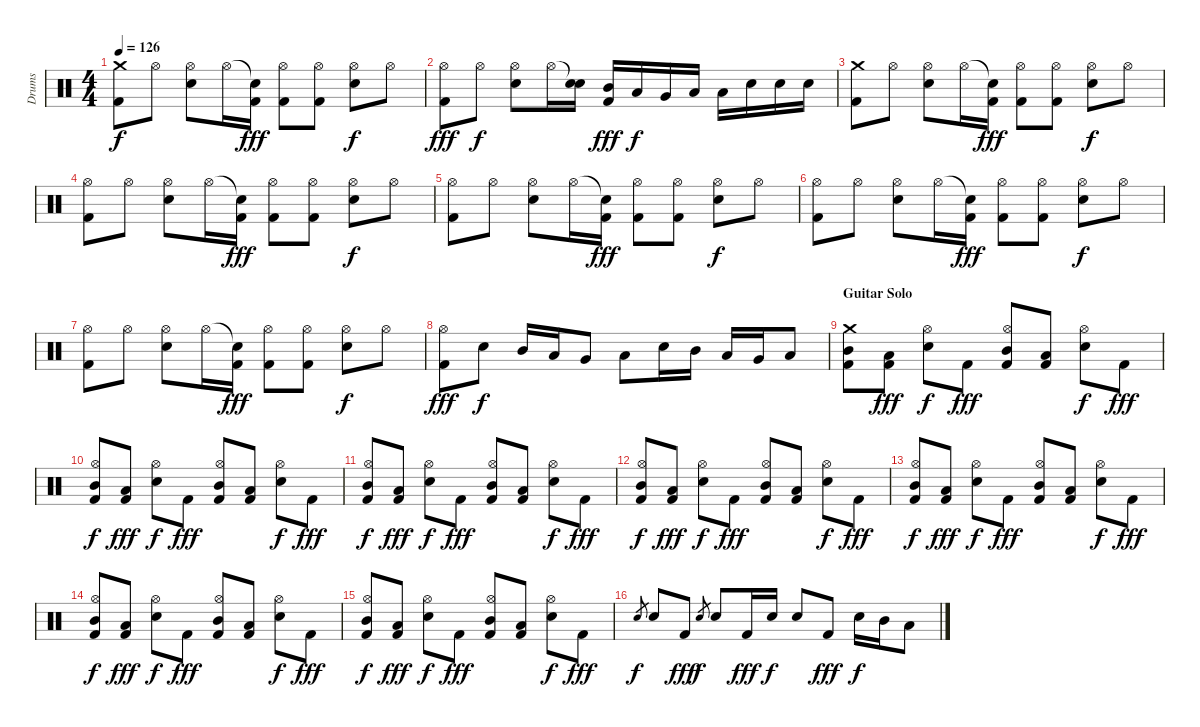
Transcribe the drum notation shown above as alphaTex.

\track ("Drums" "Drums") {instrument percussion}
\staff {score}
\articulation defaults
\ts (4 4)
\tempo 126
\clef neutral
\ks c
("Crash medium (hit)" "Kick (hit) 2").8{dy f} "Hi-Hat (open)".8 ("Hi-Hat (open)" "Snare (hit) 2").8 "Hi-Hat (open)".16 ("Snare (hit)"{t} "Kick (hit) 2").16{dy fff} ("Hi-Hat (open)" "Kick (hit) 2").8 ("Hi-Hat (open)" "Kick (hit) 2").8 ("Hi-Hat (open)" "Snare (hit) 2").8{dy f} "Hi-Hat (open)".8 |
("Hi-Hat (open)" "Kick (hit) 2").8{dy fff} "Hi-Hat (open)".8{dy f} ("Hi-Hat (open)" "Snare (hit) 2").8 "Hi-Hat (open)".16 ("Snare (hit)"{t} "Snare (hit) 2").16 ("Mid Tom (hit)" "Kick (hit) 2").16{dy fff} "Low Tom (hit)".16{dy f} "Very Low Tom (hit)".16 "Low Floor Tom (hit)".16 "Low Floor Tom (hit)".16 "Snare (hit) 2".16 "Snare (hit) 2".16 "Snare (hit) 2".16 |
("Crash medium (hit)" "Kick (hit) 2").8 "Hi-Hat (open)".8 ("Hi-Hat (open)" "Snare (hit) 2").8 "Hi-Hat (open)".16 ("Snare (hit)"{t} "Kick (hit) 2").16{dy fff} ("Hi-Hat (open)" "Kick (hit) 2").8 ("Hi-Hat (open)" "Kick (hit) 2").8 ("Hi-Hat (open)" "Snare (hit) 2").8{dy f} "Hi-Hat (open)".8 |
("Hi-Hat (open)" "Kick (hit) 2").8 "Hi-Hat (open)".8 ("Hi-Hat (open)" "Snare (hit) 2").8 "Hi-Hat (open)".16 ("Snare (hit)"{t} "Kick (hit) 2").16{dy fff} ("Hi-Hat (open)" "Kick (hit) 2").8 ("Hi-Hat (open)" "Kick (hit) 2").8 ("Hi-Hat (open)" "Snare (hit) 2").8{dy f} "Hi-Hat (open)".8 |
("Hi-Hat (open)" "Kick (hit) 2").8 "Hi-Hat (open)".8 ("Hi-Hat (open)" "Snare (hit) 2").8 "Hi-Hat (open)".16 ("Snare (hit)"{t} "Kick (hit) 2").16{dy fff} ("Hi-Hat (open)" "Kick (hit) 2").8 ("Hi-Hat (open)" "Kick (hit) 2").8 ("Hi-Hat (open)" "Snare (hit) 2").8{dy f} "Hi-Hat (open)".8 |
("Hi-Hat (open)" "Kick (hit) 2").8 "Hi-Hat (open)".8 ("Hi-Hat (open)" "Snare (hit) 2").8 "Hi-Hat (open)".16 ("Snare (hit)"{t} "Kick (hit) 2").16{dy fff} ("Hi-Hat (open)" "Kick (hit) 2").8 ("Hi-Hat (open)" "Kick (hit) 2").8 ("Hi-Hat (open)" "Snare (hit) 2").8{dy f} "Hi-Hat (open)".8 |
("Hi-Hat (open)" "Kick (hit) 2").8 "Hi-Hat (open)".8 ("Hi-Hat (open)" "Snare (hit) 2").8 "Hi-Hat (open)".16 ("Snare (hit)"{t} "Kick (hit) 2").16{dy fff} ("Hi-Hat (open)" "Kick (hit) 2").8 ("Hi-Hat (open)" "Kick (hit) 2").8 ("Hi-Hat (open)" "Snare (hit) 2").8{dy f} "Hi-Hat (open)".8 |
("Hi-Hat (open)" "Kick (hit) 2").8{dy fff} "Snare (hit) 2".8{dy f} "Mid Tom (hit)".16 "Low Tom (hit)".16 "Very Low Tom (hit)".8 "Low Floor Tom (hit)".8 "Snare (hit) 2".16 "Mid Tom (hit)".16 "Low Tom (hit)".16 "Very Low Tom (hit)".16 "Low Floor Tom (hit)".8 |
\section ("" "Guitar Solo")
("Crash medium (hit)" "Mid Tom (hit)" "Kick (hit) 2").8 ("Low Tom (hit)" "Kick (hit) 2").8{dy fff} ("Hi-Hat (open)" "Snare (hit) 2").8{dy f} "Kick (hit) 2".8{dy fff} ("Hi-Hat (open)" "Mid Tom (hit)" "Kick (hit) 2").8 ("Low Tom (hit)" "Kick (hit) 2").8 ("Hi-Hat (open)" "Snare (hit) 2").8{dy f} "Kick (hit) 2".8{dy fff} |
("Hi-Hat (open)" "Mid Tom (hit)" "Kick (hit) 2").8{dy f} ("Low Tom (hit)" "Kick (hit) 2").8{dy fff} ("Hi-Hat (open)" "Snare (hit) 2").8{dy f} "Kick (hit) 2".8{dy fff} ("Hi-Hat (open)" "Mid Tom (hit)" "Kick (hit) 2").8 ("Low Tom (hit)" "Kick (hit) 2").8 ("Hi-Hat (open)" "Snare (hit) 2").8{dy f} "Kick (hit) 2".8{dy fff} |
("Hi-Hat (open)" "Mid Tom (hit)" "Kick (hit) 2").8{dy f} ("Low Tom (hit)" "Kick (hit) 2").8{dy fff} ("Hi-Hat (open)" "Snare (hit) 2").8{dy f} "Kick (hit) 2".8{dy fff} ("Hi-Hat (open)" "Mid Tom (hit)" "Kick (hit) 2").8 ("Low Tom (hit)" "Kick (hit) 2").8 ("Hi-Hat (open)" "Snare (hit) 2").8{dy f} "Kick (hit) 2".8{dy fff} |
("Hi-Hat (open)" "Mid Tom (hit)" "Kick (hit) 2").8{dy f} ("Low Tom (hit)" "Kick (hit) 2").8{dy fff} ("Hi-Hat (open)" "Snare (hit) 2").8{dy f} "Kick (hit) 2".8{dy fff} ("Hi-Hat (open)" "Mid Tom (hit)" "Kick (hit) 2").8 ("Low Tom (hit)" "Kick (hit) 2").8 ("Hi-Hat (open)" "Snare (hit) 2").8{dy f} "Kick (hit) 2".8{dy fff} |
("Hi-Hat (open)" "Mid Tom (hit)" "Kick (hit) 2").8{dy f} ("Low Tom (hit)" "Kick (hit) 2").8{dy fff} ("Hi-Hat (open)" "Snare (hit) 2").8{dy f} "Kick (hit) 2".8{dy fff} ("Hi-Hat (open)" "Mid Tom (hit)" "Kick (hit) 2").8 ("Low Tom (hit)" "Kick (hit) 2").8 ("Hi-Hat (open)" "Snare (hit) 2").8{dy f} "Kick (hit) 2".8{dy fff} |
("Hi-Hat (open)" "Mid Tom (hit)" "Kick (hit) 2").8{dy f} ("Low Tom (hit)" "Kick (hit) 2").8{dy fff} ("Hi-Hat (open)" "Snare (hit) 2").8{dy f} "Kick (hit) 2".8{dy fff} ("Hi-Hat (open)" "Mid Tom (hit)" "Kick (hit) 2").8 ("Low Tom (hit)" "Kick (hit) 2").8 ("Hi-Hat (open)" "Snare (hit) 2").8{dy f} "Kick (hit) 2".8{dy fff} |
("Hi-Hat (open)" "Mid Tom (hit)" "Kick (hit) 2").8{dy f} ("Low Tom (hit)" "Kick (hit) 2").8{dy fff} ("Hi-Hat (open)" "Snare (hit) 2").8{dy f} "Kick (hit) 2".8{dy fff} ("Hi-Hat (open)" "Mid Tom (hit)" "Kick (hit) 2").8 ("Low Tom (hit)" "Kick (hit) 2").8 ("Hi-Hat (open)" "Snare (hit) 2").8{dy f} "Kick (hit) 2".8{dy fff} |
"Snare (hit) 2".8{gr dy f} "Snare (hit) 2".8 "Kick (hit) 2".8{dy fff} "Snare (hit) 2".8{gr dy f} "Snare (hit) 2".8 "Kick (hit) 2".16{dy fff} "Snare (hit) 2".16{dy f} "Snare (hit) 2".8 "Kick (hit) 2".8{dy fff} "Snare (hit) 2".16{dy f} "Mid Tom (hit)".16 "Low Tom (hit)".8
